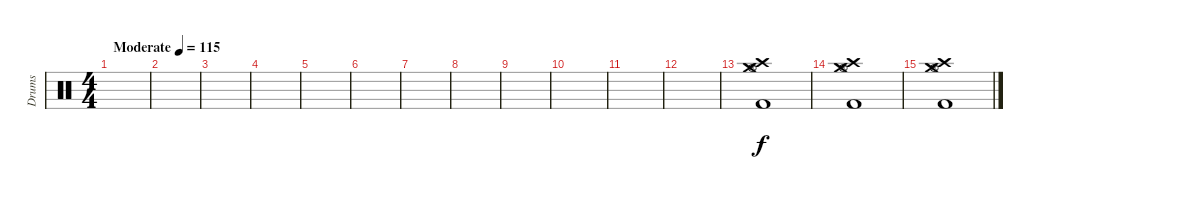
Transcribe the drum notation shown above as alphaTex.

\track ("Drums" "Drums") {instrument percussion}
\staff {score}
\articulation defaults
\ts (4 4)
\tempo (115 "Moderate")
\clef neutral
\ks c
|
|
|
|
|
|
|
|
|
|
|
|
("Kick (hit) 2" "Crash high (hit)" "Crash medium (hit)" "Hi-Hat (open)").1 |
("Kick (hit) 2" "Crash high (hit)" "Crash medium (hit)" "Hi-Hat (open)").1 |
("Kick (hit) 2" "Crash high (hit)" "Crash medium (hit)" "Hi-Hat (open)").1
